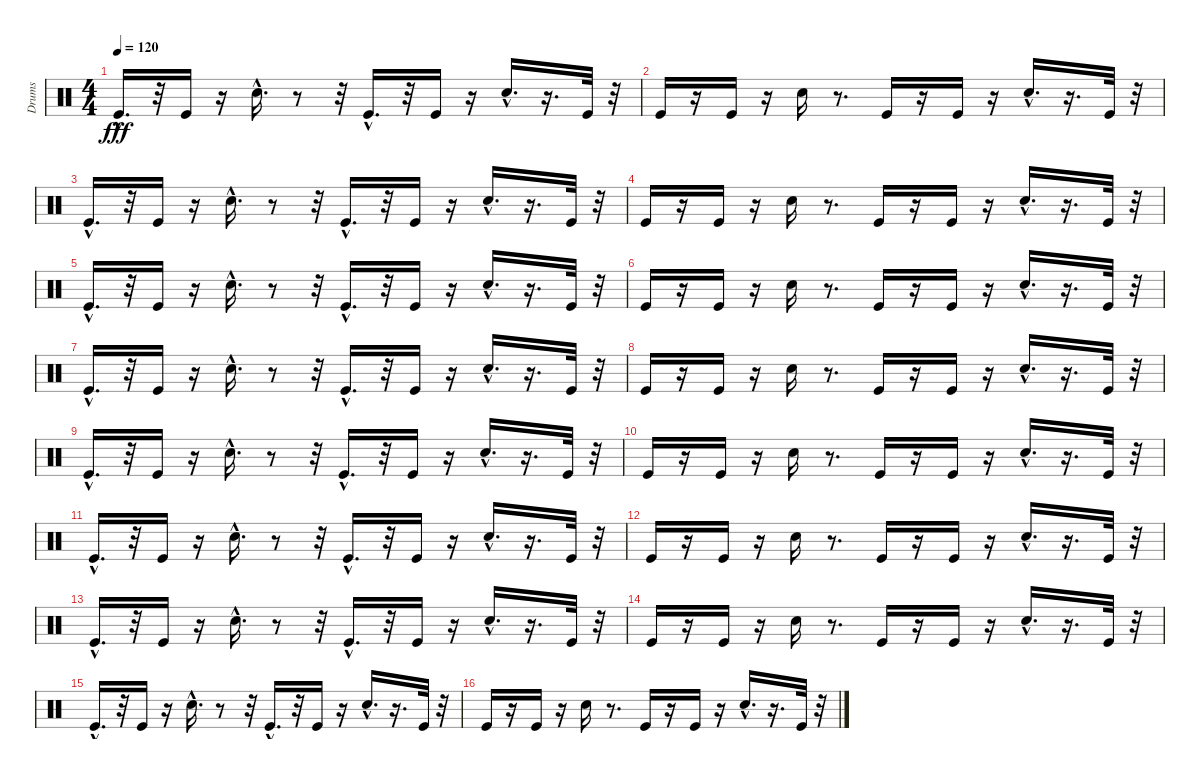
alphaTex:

\track ("Drums" "Drums") {instrument percussion}
\staff {score}
\articulation defaults
\ts (4 4)
\tempo 120
\clef neutral
\ks c "Kick (hit)"{hac}.16{d dy fff}
r.32 "Kick (hit)".16 r.16 "Electric Snare (hit)"{hac}.16{d} r.8 r.32 "Kick (hit)"{hac}.16{d} r.32 "Kick (hit)".16 r.16 "Electric Snare (hit)"{hac}.16{d} r.16{d} "Kick (hit)".32 r.32 |
"Kick (hit)".16 r.16 "Kick (hit)".16 r.16 "Electric Snare (hit)".16 r.8{d} "Kick (hit)".16 r.16 "Kick (hit)".16 r.16 "Electric Snare (hit)"{hac}.16{d} r.16{d} "Kick (hit)".32 r.32 |
"Kick (hit)"{hac}.16{d} r.32 "Kick (hit)".16 r.16 "Electric Snare (hit)"{hac}.16{d} r.8 r.32 "Kick (hit)"{hac}.16{d} r.32 "Kick (hit)".16 r.16 "Electric Snare (hit)"{hac}.16{d} r.16{d} "Kick (hit)".32 r.32 |
"Kick (hit)".16 r.16 "Kick (hit)".16 r.16 "Electric Snare (hit)".16 r.8{d} "Kick (hit)".16 r.16 "Kick (hit)".16 r.16 "Electric Snare (hit)"{hac}.16{d} r.16{d} "Kick (hit)".32 r.32 |
"Kick (hit)"{hac}.16{d} r.32 "Kick (hit)".16 r.16 "Electric Snare (hit)"{hac}.16{d} r.8 r.32 "Kick (hit)"{hac}.16{d} r.32 "Kick (hit)".16 r.16 "Electric Snare (hit)"{hac}.16{d} r.16{d} "Kick (hit)".32 r.32 |
"Kick (hit)".16 r.16 "Kick (hit)".16 r.16 "Electric Snare (hit)".16 r.8{d} "Kick (hit)".16 r.16 "Kick (hit)".16 r.16 "Electric Snare (hit)"{hac}.16{d} r.16{d} "Kick (hit)".32 r.32 |
"Kick (hit)"{hac}.16{d} r.32 "Kick (hit)".16 r.16 "Electric Snare (hit)"{hac}.16{d} r.8 r.32 "Kick (hit)"{hac}.16{d} r.32 "Kick (hit)".16 r.16 "Electric Snare (hit)"{hac}.16{d} r.16{d} "Kick (hit)".32 r.32 |
"Kick (hit)".16 r.16 "Kick (hit)".16 r.16 "Electric Snare (hit)".16 r.8{d} "Kick (hit)".16 r.16 "Kick (hit)".16 r.16 "Electric Snare (hit)"{hac}.16{d} r.16{d} "Kick (hit)".32 r.32 |
"Kick (hit)"{hac}.16{d} r.32 "Kick (hit)".16 r.16 "Electric Snare (hit)"{hac}.16{d} r.8 r.32 "Kick (hit)"{hac}.16{d} r.32 "Kick (hit)".16 r.16 "Electric Snare (hit)"{hac}.16{d} r.16{d} "Kick (hit)".32 r.32 |
"Kick (hit)".16 r.16 "Kick (hit)".16 r.16 "Electric Snare (hit)".16 r.8{d} "Kick (hit)".16 r.16 "Kick (hit)".16 r.16 "Electric Snare (hit)"{hac}.16{d} r.16{d} "Kick (hit)".32 r.32 |
"Kick (hit)"{hac}.16{d} r.32 "Kick (hit)".16 r.16 "Electric Snare (hit)"{hac}.16{d} r.8 r.32 "Kick (hit)"{hac}.16{d} r.32 "Kick (hit)".16 r.16 "Electric Snare (hit)"{hac}.16{d} r.16{d} "Kick (hit)".32 r.32 |
"Kick (hit)".16 r.16 "Kick (hit)".16 r.16 "Electric Snare (hit)".16 r.8{d} "Kick (hit)".16 r.16 "Kick (hit)".16 r.16 "Electric Snare (hit)"{hac}.16{d} r.16{d} "Kick (hit)".32 r.32 |
"Kick (hit)"{hac}.16{d} r.32 "Kick (hit)".16 r.16 "Electric Snare (hit)"{hac}.16{d} r.8 r.32 "Kick (hit)"{hac}.16{d} r.32 "Kick (hit)".16 r.16 "Electric Snare (hit)"{hac}.16{d} r.16{d} "Kick (hit)".32 r.32 |
"Kick (hit)".16 r.16 "Kick (hit)".16 r.16 "Electric Snare (hit)".16 r.8{d} "Kick (hit)".16 r.16 "Kick (hit)".16 r.16 "Electric Snare (hit)"{hac}.16{d} r.16{d} "Kick (hit)".32 r.32 |
"Kick (hit)"{hac}.16{d} r.32 "Kick (hit)".16 r.16 "Electric Snare (hit)"{hac}.16{d} r.8 r.32 "Kick (hit)"{hac}.16{d} r.32 "Kick (hit)".16 r.16 "Electric Snare (hit)"{hac}.16{d} r.16{d} "Kick (hit)".32 r.32 |
"Kick (hit)".16 r.16 "Kick (hit)".16 r.16 "Electric Snare (hit)".16 r.8{d} "Kick (hit)".16 r.16 "Kick (hit)".16 r.16 "Electric Snare (hit)"{hac}.16{d} r.16{d} "Kick (hit)".32 r.32
